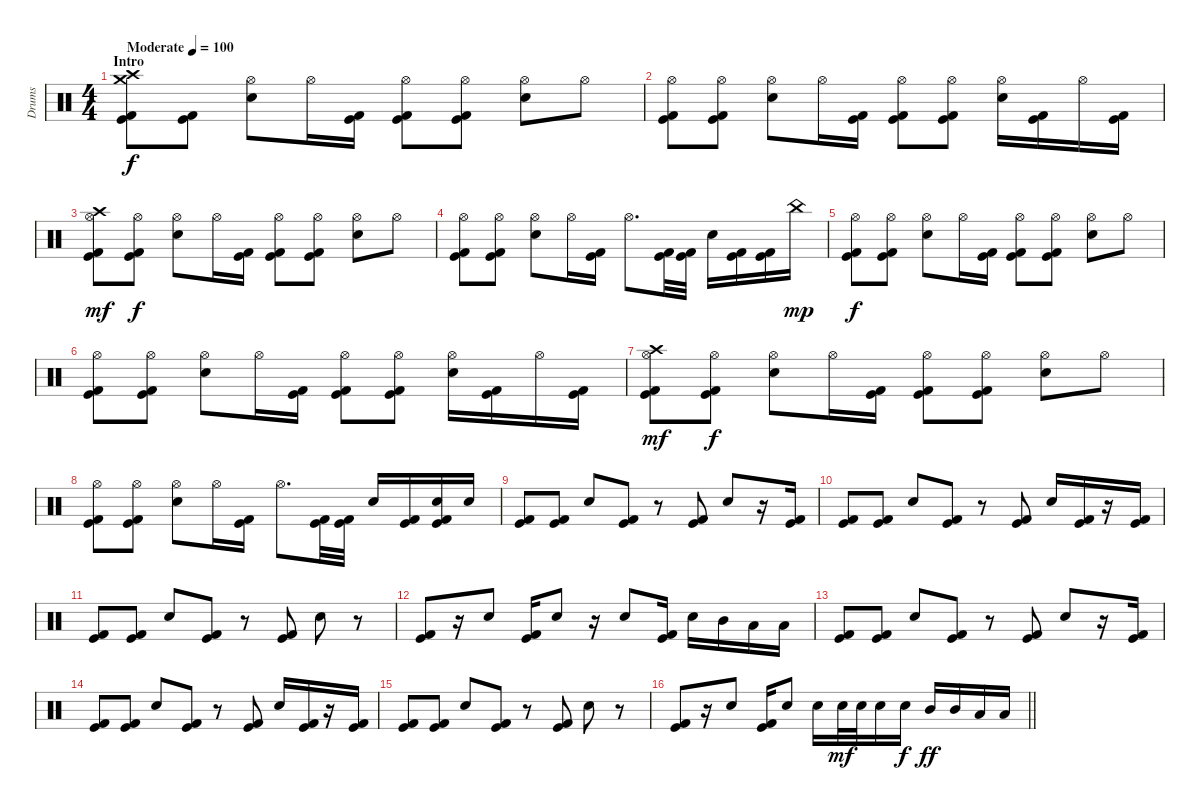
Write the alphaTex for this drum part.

\track ("Drums" "Drums") {instrument percussion}
\staff {score}
\articulation defaults
\ts (4 4)
\section ("" "Intro")
\tempo (100 "Moderate")
\clef neutral
\ks c
("Crash medium (hit)" "Crash high (hit)" "Kick (hit)" "Kick (hit) 2").8{dy f} ("Kick (hit)" "Kick (hit) 2").8 ("Hi-Hat (open)" "Snare (hit) 2").8 "Hi-Hat (open)".16 ("Kick (hit)" "Kick (hit) 2").16 ("Hi-Hat (open)" "Kick (hit)" "Kick (hit) 2").8 ("Hi-Hat (open)" "Kick (hit)" "Kick (hit) 2").8 ("Hi-Hat (open)" "Snare (hit) 2").8 "Hi-Hat (open)".8 |
("Hi-Hat (open)" "Kick (hit)" "Kick (hit) 2").8 ("Hi-Hat (open)" "Kick (hit)" "Kick (hit) 2").8 ("Hi-Hat (open)" "Snare (hit) 2").8 "Hi-Hat (open)".16 ("Kick (hit)" "Kick (hit) 2").16 ("Hi-Hat (open)" "Kick (hit)" "Kick (hit) 2").8 ("Hi-Hat (open)" "Kick (hit)" "Kick (hit) 2").8 ("Hi-Hat (open)" "Snare (hit) 2").16 ("Kick (hit)" "Kick (hit) 2").16 "Hi-Hat (open)".16 ("Kick (hit)" "Kick (hit) 2").16 |
("Crash high (hit)" "Hi-Hat (open)" "Kick (hit)" "Kick (hit) 2").8{dy mf} ("Hi-Hat (open)" "Kick (hit)" "Kick (hit) 2").8{dy f} ("Hi-Hat (open)" "Snare (hit) 2").8 "Hi-Hat (open)".16 ("Kick (hit)" "Kick (hit) 2").16 ("Hi-Hat (open)" "Kick (hit)" "Kick (hit) 2").8 ("Hi-Hat (open)" "Kick (hit)" "Kick (hit) 2").8 ("Hi-Hat (open)" "Snare (hit) 2").8 "Hi-Hat (open)".8 |
("Hi-Hat (open)" "Kick (hit)" "Kick (hit) 2").8 ("Hi-Hat (open)" "Kick (hit)" "Kick (hit) 2").8 ("Hi-Hat (open)" "Snare (hit) 2").8 "Hi-Hat (open)".16 ("Kick (hit)" "Kick (hit) 2").16 "Hi-Hat (open)".8{d} ("Kick (hit)" "Kick (hit) 2").32 ("Kick (hit)" "Kick (hit) 2").32 "Snare (hit) 2".16 ("Kick (hit)" "Kick (hit) 2").16 ("Kick (hit)" "Kick (hit) 2").16 "China (hit)".16{dy mp} |
("Hi-Hat (open)" "Kick (hit)" "Kick (hit) 2").8{dy f} ("Hi-Hat (open)" "Kick (hit)" "Kick (hit) 2").8 ("Hi-Hat (open)" "Snare (hit) 2").8 "Hi-Hat (open)".16 ("Kick (hit)" "Kick (hit) 2").16 ("Hi-Hat (open)" "Kick (hit)" "Kick (hit) 2").8 ("Hi-Hat (open)" "Kick (hit)" "Kick (hit) 2").8 ("Hi-Hat (open)" "Snare (hit) 2").8 "Hi-Hat (open)".8 |
("Hi-Hat (open)" "Kick (hit)" "Kick (hit) 2").8 ("Hi-Hat (open)" "Kick (hit)" "Kick (hit) 2").8 ("Hi-Hat (open)" "Snare (hit) 2").8 "Hi-Hat (open)".16 ("Kick (hit)" "Kick (hit) 2").16 ("Hi-Hat (open)" "Kick (hit)" "Kick (hit) 2").8 ("Hi-Hat (open)" "Kick (hit)" "Kick (hit) 2").8 ("Hi-Hat (open)" "Snare (hit) 2").16 ("Kick (hit)" "Kick (hit) 2").16 "Hi-Hat (open)".16 ("Kick (hit)" "Kick (hit) 2").16 |
("Crash high (hit)" "Hi-Hat (open)" "Kick (hit)" "Kick (hit) 2").8{dy mf} ("Hi-Hat (open)" "Kick (hit)" "Kick (hit) 2").8{dy f} ("Hi-Hat (open)" "Snare (hit) 2").8 "Hi-Hat (open)".16 ("Kick (hit)" "Kick (hit) 2").16 ("Hi-Hat (open)" "Kick (hit)" "Kick (hit) 2").8 ("Hi-Hat (open)" "Kick (hit)" "Kick (hit) 2").8 ("Hi-Hat (open)" "Snare (hit) 2").8 "Hi-Hat (open)".8 |
("Hi-Hat (open)" "Kick (hit)" "Kick (hit) 2").8 ("Hi-Hat (open)" "Kick (hit)" "Kick (hit) 2").8 ("Hi-Hat (open)" "Snare (hit) 2").8 "Hi-Hat (open)".16 ("Kick (hit)" "Kick (hit) 2").16 "Hi-Hat (open)".8{d} ("Kick (hit)" "Kick (hit) 2").32 ("Kick (hit)" "Kick (hit) 2").32 "Snare (hit) 2".16 ("Kick (hit)" "Kick (hit) 2").16 ("Snare (hit) 2" "Kick (hit)" "Kick (hit) 2").16 "Snare (hit) 2".16 |
("Kick (hit)" "Kick (hit) 2").8 ("Kick (hit)" "Kick (hit) 2").8 "Snare (hit) 2".8 ("Kick (hit)" "Kick (hit) 2").8 r.8 ("Kick (hit)" "Kick (hit) 2").8 "Snare (hit) 2".8 r.16 ("Kick (hit)" "Kick (hit) 2").16 |
("Kick (hit)" "Kick (hit) 2").8 ("Kick (hit)" "Kick (hit) 2").8 "Snare (hit) 2".8 ("Kick (hit)" "Kick (hit) 2").8 r.8 ("Kick (hit)" "Kick (hit) 2").8 "Snare (hit) 2".16 ("Kick (hit)" "Kick (hit) 2").16 r.16 ("Kick (hit)" "Kick (hit) 2").16 |
("Kick (hit)" "Kick (hit) 2").8 ("Kick (hit)" "Kick (hit) 2").8 "Snare (hit) 2".8 ("Kick (hit)" "Kick (hit) 2").8 r.8 ("Kick (hit)" "Kick (hit) 2").8 "Snare (hit) 2".8 r.8 |
("Kick (hit)" "Kick (hit) 2").8 r.16 "Snare (hit) 2".8 ("Kick (hit)" "Kick (hit) 2").16 "Snare (hit) 2".8 r.16 "Snare (hit) 2".8 ("Kick (hit)" "Kick (hit) 2").16 "Snare (hit) 2".16 "Mid Tom (hit)".16 "Low Tom (hit)".16 "Low Tom (hit)".16 |
("Kick (hit)" "Kick (hit) 2").8 ("Kick (hit)" "Kick (hit) 2").8 "Snare (hit) 2".8 ("Kick (hit)" "Kick (hit) 2").8 r.8 ("Kick (hit)" "Kick (hit) 2").8 "Snare (hit) 2".8 r.16 ("Kick (hit)" "Kick (hit) 2").16 |
("Kick (hit)" "Kick (hit) 2").8 ("Kick (hit)" "Kick (hit) 2").8 "Snare (hit) 2".8 ("Kick (hit)" "Kick (hit) 2").8 r.8 ("Kick (hit)" "Kick (hit) 2").8 "Snare (hit) 2".16 ("Kick (hit)" "Kick (hit) 2").16 r.16 ("Kick (hit)" "Kick (hit) 2").16 |
("Kick (hit)" "Kick (hit) 2").8 ("Kick (hit)" "Kick (hit) 2").8 "Snare (hit) 2".8 ("Kick (hit)" "Kick (hit) 2").8 r.8 ("Kick (hit)" "Kick (hit) 2").8 "Snare (hit) 2".8 r.8 |
\barLineRight lightlight
("Kick (hit)" "Kick (hit) 2").8 r.16 "Snare (hit) 2".8 ("Kick (hit)" "Kick (hit) 2").16 "Snare (hit) 2".8 "Snare (hit) 2".16 "Snare (hit) 2".32{dy mf} "Snare (hit) 2".32 "Snare (hit) 2".16 "Snare (hit) 2".16{dy f} "Mid Tom (hit)".16{dy ff} "Mid Tom (hit)".16 "Low Tom (hit)".16 "Low Tom (hit)".16
